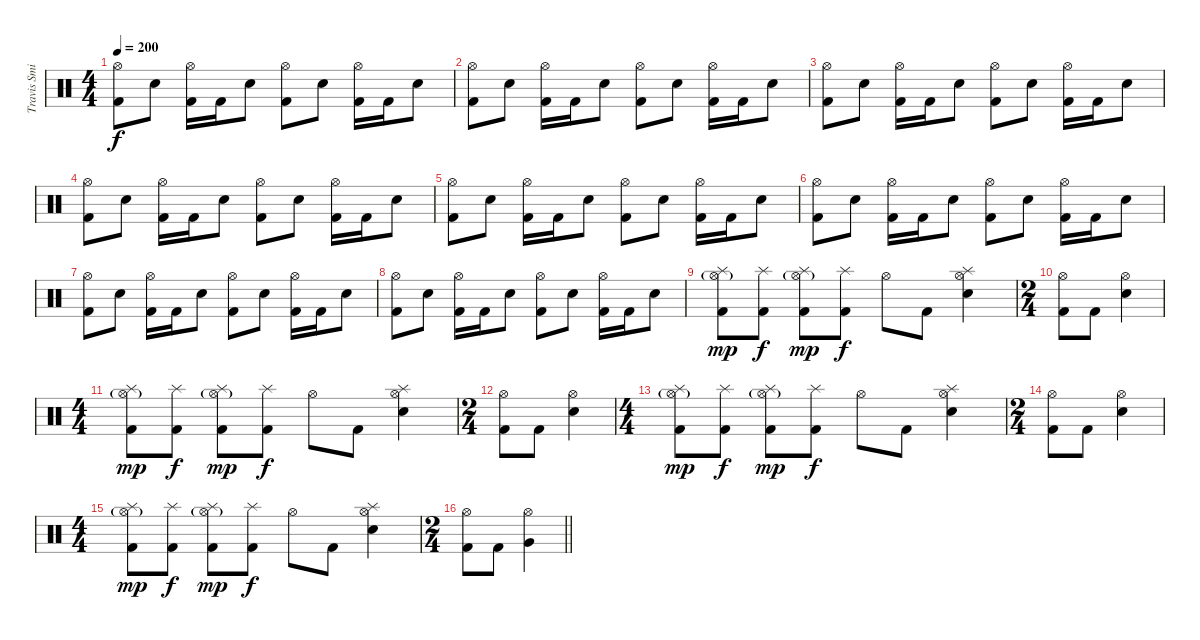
\track ("Travis Smith" "Travis Smi") {instrument percussion}
\staff {score}
\articulation defaults
\ts (4 4)
\tempo 200
\clef neutral
\ks c
("Hi-Hat (open)" "Kick (hit) 2").8{dy f} "Electric Snare (hit)".8 ("Hi-Hat (open)" "Kick (hit) 2").16 "Kick (hit) 2".16 "Electric Snare (hit)".8 ("Hi-Hat (open)" "Kick (hit) 2").8 "Electric Snare (hit)".8 ("Hi-Hat (open)" "Kick (hit) 2").16 "Kick (hit) 2".16 "Electric Snare (hit)".8 |
("Hi-Hat (open)" "Kick (hit) 2").8 "Electric Snare (hit)".8 ("Hi-Hat (open)" "Kick (hit) 2").16 "Kick (hit) 2".16 "Electric Snare (hit)".8 ("Hi-Hat (open)" "Kick (hit) 2").8 "Electric Snare (hit)".8 ("Hi-Hat (open)" "Kick (hit) 2").16 "Kick (hit) 2".16 "Electric Snare (hit)".8 |
("Hi-Hat (open)" "Kick (hit) 2").8 "Electric Snare (hit)".8 ("Hi-Hat (open)" "Kick (hit) 2").16 "Kick (hit) 2".16 "Electric Snare (hit)".8 ("Hi-Hat (open)" "Kick (hit) 2").8 "Electric Snare (hit)".8 ("Hi-Hat (open)" "Kick (hit) 2").16 "Kick (hit) 2".16 "Electric Snare (hit)".8 |
("Hi-Hat (open)" "Kick (hit) 2").8 "Electric Snare (hit)".8 ("Hi-Hat (open)" "Kick (hit) 2").16 "Kick (hit) 2".16 "Electric Snare (hit)".8 ("Hi-Hat (open)" "Kick (hit) 2").8 "Electric Snare (hit)".8 ("Hi-Hat (open)" "Kick (hit) 2").16 "Kick (hit) 2".16 "Electric Snare (hit)".8 |
("Hi-Hat (open)" "Kick (hit) 2").8 "Electric Snare (hit)".8 ("Hi-Hat (open)" "Kick (hit) 2").16 "Kick (hit) 2".16 "Electric Snare (hit)".8 ("Hi-Hat (open)" "Kick (hit) 2").8 "Electric Snare (hit)".8 ("Hi-Hat (open)" "Kick (hit) 2").16 "Kick (hit) 2".16 "Electric Snare (hit)".8 |
("Hi-Hat (open)" "Kick (hit) 2").8 "Electric Snare (hit)".8 ("Hi-Hat (open)" "Kick (hit) 2").16 "Kick (hit) 2".16 "Electric Snare (hit)".8 ("Hi-Hat (open)" "Kick (hit) 2").8 "Electric Snare (hit)".8 ("Hi-Hat (open)" "Kick (hit) 2").16 "Kick (hit) 2".16 "Electric Snare (hit)".8 |
("Hi-Hat (open)" "Kick (hit) 2").8 "Electric Snare (hit)".8 ("Hi-Hat (open)" "Kick (hit) 2").16 "Kick (hit) 2".16 "Electric Snare (hit)".8 ("Hi-Hat (open)" "Kick (hit) 2").8 "Electric Snare (hit)".8 ("Hi-Hat (open)" "Kick (hit) 2").16 "Kick (hit) 2".16 "Electric Snare (hit)".8 |
("Hi-Hat (open)" "Kick (hit) 2").8 "Electric Snare (hit)".8 ("Hi-Hat (open)" "Kick (hit) 2").16 "Kick (hit) 2".16 "Electric Snare (hit)".8 ("Hi-Hat (open)" "Kick (hit) 2").8 "Electric Snare (hit)".8 ("Hi-Hat (open)" "Kick (hit) 2").16 "Kick (hit) 2".16 "Electric Snare (hit)".8 |
("Splash (hit)" "Hi-Hat (open)"{g} "Kick (hit) 2").8{dy mp} ("Splash (hit)" "Kick (hit) 2").8{dy f} ("Splash (hit)" "Hi-Hat (open)"{g} "Kick (hit) 2").8{dy mp} ("Splash (hit)" "Kick (hit) 2").8{dy f} "Hi-Hat (open)".8 "Kick (hit) 2".8 ("Splash (hit)" "Hi-Hat (open)" "Electric Snare (hit)").4 |
\ts (2 4)
("Hi-Hat (open)" "Kick (hit) 2").8 "Kick (hit) 2".8 ("Hi-Hat (open)" "Electric Snare (hit)").4 |
\ts (4 4)
("Splash (hit)" "Hi-Hat (open)"{g} "Kick (hit) 2").8{dy mp} ("Splash (hit)" "Kick (hit) 2").8{dy f} ("Splash (hit)" "Hi-Hat (open)"{g} "Kick (hit) 2").8{dy mp} ("Splash (hit)" "Kick (hit) 2").8{dy f} "Hi-Hat (open)".8 "Kick (hit) 2".8 ("Splash (hit)" "Hi-Hat (open)" "Electric Snare (hit)").4 |
\ts (2 4)
("Hi-Hat (open)" "Kick (hit) 2").8 "Kick (hit) 2".8 ("Hi-Hat (open)" "Electric Snare (hit)").4 |
\ts (4 4)
("Splash (hit)" "Hi-Hat (open)"{g} "Kick (hit) 2").8{dy mp} ("Splash (hit)" "Kick (hit) 2").8{dy f} ("Splash (hit)" "Hi-Hat (open)"{g} "Kick (hit) 2").8{dy mp} ("Splash (hit)" "Kick (hit) 2").8{dy f} "Hi-Hat (open)".8 "Kick (hit) 2".8 ("Splash (hit)" "Hi-Hat (open)" "Electric Snare (hit)").4 |
\ts (2 4)
("Hi-Hat (open)" "Kick (hit) 2").8 "Kick (hit) 2".8 ("Hi-Hat (open)" "Electric Snare (hit)").4 |
\ts (4 4)
("Splash (hit)" "Hi-Hat (open)"{g} "Kick (hit) 2").8{dy mp} ("Splash (hit)" "Kick (hit) 2").8{dy f} ("Splash (hit)" "Hi-Hat (open)"{g} "Kick (hit) 2").8{dy mp} ("Splash (hit)" "Kick (hit) 2").8{dy f} "Hi-Hat (open)".8 "Kick (hit) 2".8 ("Splash (hit)" "Hi-Hat (open)" "Electric Snare (hit)").4 |
\ts (2 4)
\barLineRight lightlight
("Hi-Hat (open)" "Kick (hit) 2").8 "Kick (hit) 2".8 ("Hi-Hat (open)" "Very Low Tom (hit)").4
